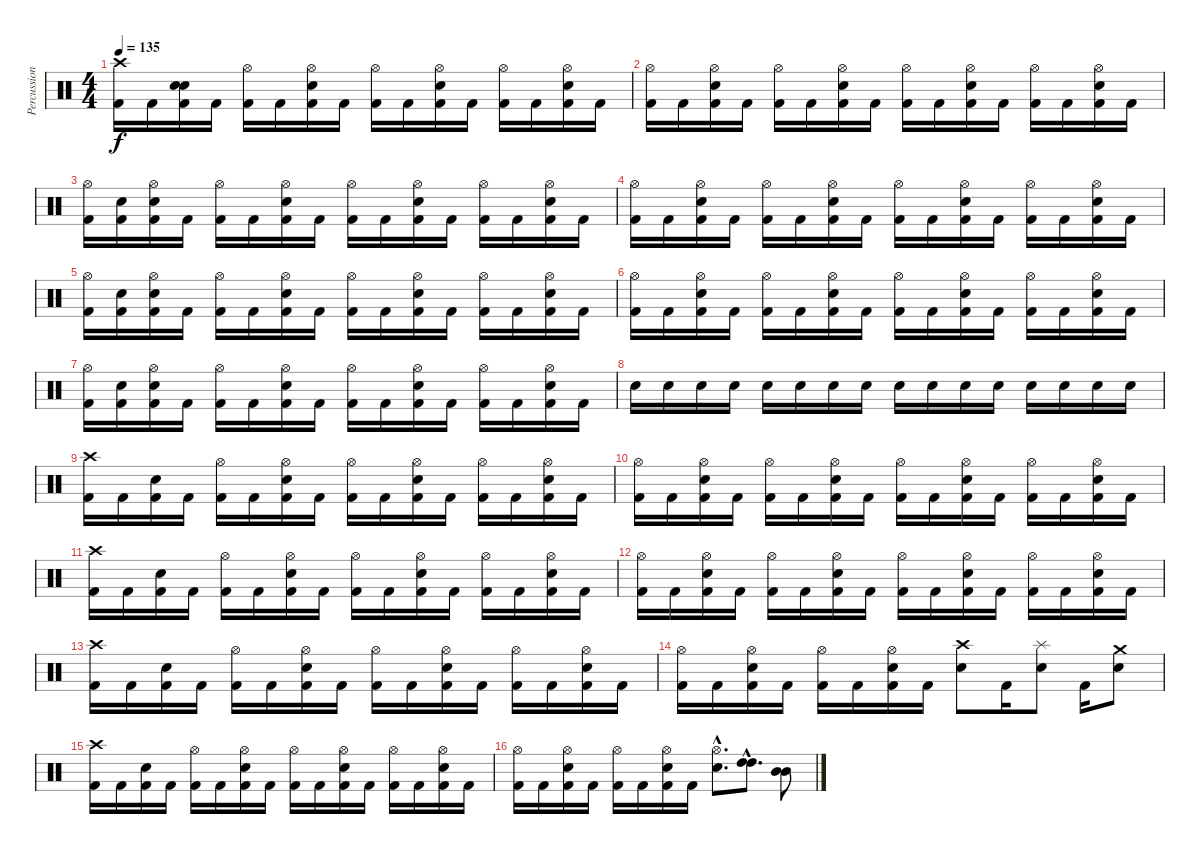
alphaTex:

\track ("Percussion" "Percussion") {instrument percussion}
\staff {score}
\articulation defaults
\ts (4 4)
\tempo 135
\clef neutral
\ks c
("Crash high (hit)" "Kick (hit) 2").16{dy f} "Kick (hit) 2".16 ("Snare (hit)" "Snare (hit) 2" "Kick (hit) 2").16 "Kick (hit) 2".16 ("Hi-Hat (open)" "Kick (hit) 2").16 "Kick (hit) 2".16 ("Hi-Hat (open)" "Snare (hit) 2" "Kick (hit) 2").16 "Kick (hit) 2".16 ("Hi-Hat (open)" "Kick (hit) 2").16 "Kick (hit) 2".16 ("Hi-Hat (open)" "Snare (hit) 2" "Kick (hit) 2").16 "Kick (hit) 2".16 ("Hi-Hat (open)" "Kick (hit) 2").16 "Kick (hit) 2".16 ("Hi-Hat (open)" "Snare (hit) 2" "Kick (hit) 2").16 "Kick (hit) 2".16 |
("Hi-Hat (open)" "Kick (hit) 2").16 "Kick (hit) 2".16 ("Hi-Hat (open)" "Snare (hit) 2" "Kick (hit) 2").16 "Kick (hit) 2".16 ("Hi-Hat (open)" "Kick (hit) 2").16 "Kick (hit) 2".16 ("Hi-Hat (open)" "Snare (hit) 2" "Kick (hit) 2").16 "Kick (hit) 2".16 ("Hi-Hat (open)" "Kick (hit) 2").16 "Kick (hit) 2".16 ("Hi-Hat (open)" "Snare (hit) 2" "Kick (hit) 2").16 "Kick (hit) 2".16 ("Hi-Hat (open)" "Kick (hit) 2").16 "Kick (hit) 2".16 ("Hi-Hat (open)" "Snare (hit) 2" "Kick (hit) 2").16 "Kick (hit) 2".16 |
("Hi-Hat (open)" "Kick (hit) 2").16 ("Snare (hit)" "Kick (hit) 2").16 ("Hi-Hat (open)" "Snare (hit) 2" "Kick (hit) 2").16 "Kick (hit) 2".16 ("Hi-Hat (open)" "Kick (hit) 2").16 "Kick (hit) 2".16 ("Hi-Hat (open)" "Snare (hit) 2" "Kick (hit) 2").16 "Kick (hit) 2".16 ("Hi-Hat (open)" "Kick (hit) 2").16 "Kick (hit) 2".16 ("Hi-Hat (open)" "Snare (hit) 2" "Kick (hit) 2").16 "Kick (hit) 2".16 ("Hi-Hat (open)" "Kick (hit) 2").16 "Kick (hit) 2".16 ("Hi-Hat (open)" "Snare (hit) 2" "Kick (hit) 2").16 "Kick (hit) 2".16 |
("Hi-Hat (open)" "Kick (hit) 2").16 "Kick (hit) 2".16 ("Hi-Hat (open)" "Snare (hit) 2" "Kick (hit) 2").16 "Kick (hit) 2".16 ("Hi-Hat (open)" "Kick (hit) 2").16 "Kick (hit) 2".16 ("Hi-Hat (open)" "Snare (hit) 2" "Kick (hit) 2").16 "Kick (hit) 2".16 ("Hi-Hat (open)" "Kick (hit) 2").16 "Kick (hit) 2".16 ("Hi-Hat (open)" "Snare (hit) 2" "Kick (hit) 2").16 "Kick (hit) 2".16 ("Hi-Hat (open)" "Kick (hit) 2").16 "Kick (hit) 2".16 ("Hi-Hat (open)" "Snare (hit) 2" "Kick (hit) 2").16 "Kick (hit) 2".16 |
("Hi-Hat (open)" "Kick (hit) 2").16 ("Snare (hit)" "Kick (hit) 2").16 ("Hi-Hat (open)" "Snare (hit) 2" "Kick (hit) 2").16 "Kick (hit) 2".16 ("Hi-Hat (open)" "Kick (hit) 2").16 "Kick (hit) 2".16 ("Hi-Hat (open)" "Snare (hit) 2" "Kick (hit) 2").16 "Kick (hit) 2".16 ("Hi-Hat (open)" "Kick (hit) 2").16 "Kick (hit) 2".16 ("Hi-Hat (open)" "Snare (hit) 2" "Kick (hit) 2").16 "Kick (hit) 2".16 ("Hi-Hat (open)" "Kick (hit) 2").16 "Kick (hit) 2".16 ("Hi-Hat (open)" "Snare (hit) 2" "Kick (hit) 2").16 "Kick (hit) 2".16 |
("Hi-Hat (open)" "Kick (hit) 2").16 "Kick (hit) 2".16 ("Hi-Hat (open)" "Snare (hit) 2" "Kick (hit) 2").16 "Kick (hit) 2".16 ("Hi-Hat (open)" "Kick (hit) 2").16 "Kick (hit) 2".16 ("Hi-Hat (open)" "Snare (hit) 2" "Kick (hit) 2").16 "Kick (hit) 2".16 ("Hi-Hat (open)" "Kick (hit) 2").16 "Kick (hit) 2".16 ("Hi-Hat (open)" "Snare (hit) 2" "Kick (hit) 2").16 "Kick (hit) 2".16 ("Hi-Hat (open)" "Kick (hit) 2").16 "Kick (hit) 2".16 ("Hi-Hat (open)" "Snare (hit) 2" "Kick (hit) 2").16 "Kick (hit) 2".16 |
("Hi-Hat (open)" "Kick (hit) 2").16 ("Snare (hit)" "Kick (hit) 2").16 ("Hi-Hat (open)" "Snare (hit) 2" "Kick (hit) 2").16 "Kick (hit) 2".16 ("Hi-Hat (open)" "Kick (hit) 2").16 "Kick (hit) 2".16 ("Hi-Hat (open)" "Snare (hit) 2" "Kick (hit) 2").16 "Kick (hit) 2".16 ("Hi-Hat (open)" "Kick (hit) 2").16 "Kick (hit) 2".16 ("Hi-Hat (open)" "Snare (hit) 2" "Kick (hit) 2").16 "Kick (hit) 2".16 ("Hi-Hat (open)" "Kick (hit) 2").16 "Kick (hit) 2".16 ("Hi-Hat (open)" "Snare (hit) 2" "Kick (hit) 2").16 "Kick (hit) 2".16 |
"Snare (hit) 2".16 "Snare (hit) 2".16 "Snare (hit) 2".16 "Snare (hit) 2".16 "Snare (hit) 2".16 "Snare (hit) 2".16 "Snare (hit) 2".16 "Snare (hit) 2".16 "Snare (hit) 2".16 "Snare (hit) 2".16 "Snare (hit) 2".16 "Snare (hit) 2".16 "Snare (hit) 2".16 "Snare (hit) 2".16 "Snare (hit) 2".16 "Snare (hit) 2".16 |
("Crash high (hit)" "Kick (hit) 2").16 "Kick (hit) 2".16 ("Snare (hit) 2" "Kick (hit) 2").16 "Kick (hit) 2".16 ("Hi-Hat (open)" "Kick (hit) 2").16 "Kick (hit) 2".16 ("Hi-Hat (open)" "Snare (hit) 2" "Kick (hit) 2").16 "Kick (hit) 2".16 ("Hi-Hat (open)" "Kick (hit) 2").16 "Kick (hit) 2".16 ("Hi-Hat (open)" "Snare (hit) 2" "Kick (hit) 2").16 "Kick (hit) 2".16 ("Hi-Hat (open)" "Kick (hit) 2").16 "Kick (hit) 2".16 ("Hi-Hat (open)" "Snare (hit) 2" "Kick (hit) 2").16 "Kick (hit) 2".16 |
("Hi-Hat (open)" "Kick (hit) 2").16 "Kick (hit) 2".16 ("Hi-Hat (open)" "Snare (hit) 2" "Kick (hit) 2").16 "Kick (hit) 2".16 ("Hi-Hat (open)" "Kick (hit) 2").16 "Kick (hit) 2".16 ("Hi-Hat (open)" "Snare (hit) 2" "Kick (hit) 2").16 "Kick (hit) 2".16 ("Hi-Hat (open)" "Kick (hit) 2").16 "Kick (hit) 2".16 ("Hi-Hat (open)" "Snare (hit) 2" "Kick (hit) 2").16 "Kick (hit) 2".16 ("Hi-Hat (open)" "Kick (hit) 2").16 "Kick (hit) 2".16 ("Hi-Hat (open)" "Snare (hit) 2" "Kick (hit) 2").16 "Kick (hit) 2".16 |
("Crash high (hit)" "Kick (hit) 2").16 "Kick (hit) 2".16 ("Snare (hit) 2" "Kick (hit) 2").16 "Kick (hit) 2".16 ("Hi-Hat (open)" "Kick (hit) 2").16 "Kick (hit) 2".16 ("Hi-Hat (open)" "Snare (hit) 2" "Kick (hit) 2").16 "Kick (hit) 2".16 ("Hi-Hat (open)" "Kick (hit) 2").16 "Kick (hit) 2".16 ("Hi-Hat (open)" "Snare (hit) 2" "Kick (hit) 2").16 "Kick (hit) 2".16 ("Hi-Hat (open)" "Kick (hit) 2").16 "Kick (hit) 2".16 ("Hi-Hat (open)" "Snare (hit) 2" "Kick (hit) 2").16 "Kick (hit) 2".16 |
("Hi-Hat (open)" "Kick (hit) 2").16 "Kick (hit) 2".16 ("Hi-Hat (open)" "Snare (hit) 2" "Kick (hit) 2").16 "Kick (hit) 2".16 ("Hi-Hat (open)" "Kick (hit) 2").16 "Kick (hit) 2".16 ("Hi-Hat (open)" "Snare (hit) 2" "Kick (hit) 2").16 "Kick (hit) 2".16 ("Hi-Hat (open)" "Kick (hit) 2").16 "Kick (hit) 2".16 ("Hi-Hat (open)" "Snare (hit) 2" "Kick (hit) 2").16 "Kick (hit) 2".16 ("Hi-Hat (open)" "Kick (hit) 2").16 "Kick (hit) 2".16 ("Hi-Hat (open)" "Snare (hit) 2" "Kick (hit) 2").16 "Kick (hit) 2".16 |
("Crash high (hit)" "Kick (hit) 2").16 "Kick (hit) 2".16 ("Snare (hit) 2" "Kick (hit) 2").16 "Kick (hit) 2".16 ("Hi-Hat (open)" "Kick (hit) 2").16 "Kick (hit) 2".16 ("Hi-Hat (open)" "Snare (hit) 2" "Kick (hit) 2").16 "Kick (hit) 2".16 ("Hi-Hat (open)" "Kick (hit) 2").16 "Kick (hit) 2".16 ("Hi-Hat (open)" "Snare (hit) 2" "Kick (hit) 2").16 "Kick (hit) 2".16 ("Hi-Hat (open)" "Kick (hit) 2").16 "Kick (hit) 2".16 ("Hi-Hat (open)" "Snare (hit) 2" "Kick (hit) 2").16 "Kick (hit) 2".16 |
("Hi-Hat (open)" "Kick (hit) 2").16 "Kick (hit) 2".16 ("Hi-Hat (open)" "Snare (hit) 2" "Kick (hit) 2").16 "Kick (hit) 2".16 ("Hi-Hat (open)" "Kick (hit) 2").16 "Kick (hit) 2".16 ("Hi-Hat (open)" "Snare (hit) 2" "Kick (hit) 2").16 "Kick (hit) 2".16 ("Crash high (hit)" "Snare (hit) 2").8 "Kick (hit) 2".16 ("Splash (hit)" "Snare (hit) 2").8 "Kick (hit) 2".16 ("Crash medium (hit)" "Snare (hit) 2").8 |
("Crash high (hit)" "Kick (hit) 2").16 "Kick (hit) 2".16 ("Snare (hit) 2" "Kick (hit) 2").16 "Kick (hit) 2".16 ("Hi-Hat (open)" "Kick (hit) 2").16 "Kick (hit) 2".16 ("Hi-Hat (open)" "Snare (hit) 2" "Kick (hit) 2").16 "Kick (hit) 2".16 ("Hi-Hat (open)" "Kick (hit) 2").16 "Kick (hit) 2".16 ("Hi-Hat (open)" "Snare (hit) 2" "Kick (hit) 2").16 "Kick (hit) 2".16 ("Hi-Hat (open)" "Kick (hit) 2").16 "Kick (hit) 2".16 ("Hi-Hat (open)" "Snare (hit) 2" "Kick (hit) 2").16 "Kick (hit) 2".16 |
("Hi-Hat (open)" "Kick (hit) 2").16 "Kick (hit) 2".16 ("Hi-Hat (open)" "Snare (hit) 2" "Kick (hit) 2").16 "Kick (hit) 2".16 ("Hi-Hat (open)" "Kick (hit) 2").16 "Kick (hit) 2".16 ("Hi-Hat (open)" "Snare (hit) 2" "Kick (hit) 2").16 "Kick (hit) 2".16 ("Hi-Hat (open)"{hac} "Snare (hit) 2"{hac}).8{d} ("High Tom (hit)"{hac} "High Tom (hit)"{hac}).8{d} ("Mid Tom (hit)" "Mid Tom (hit)").8
